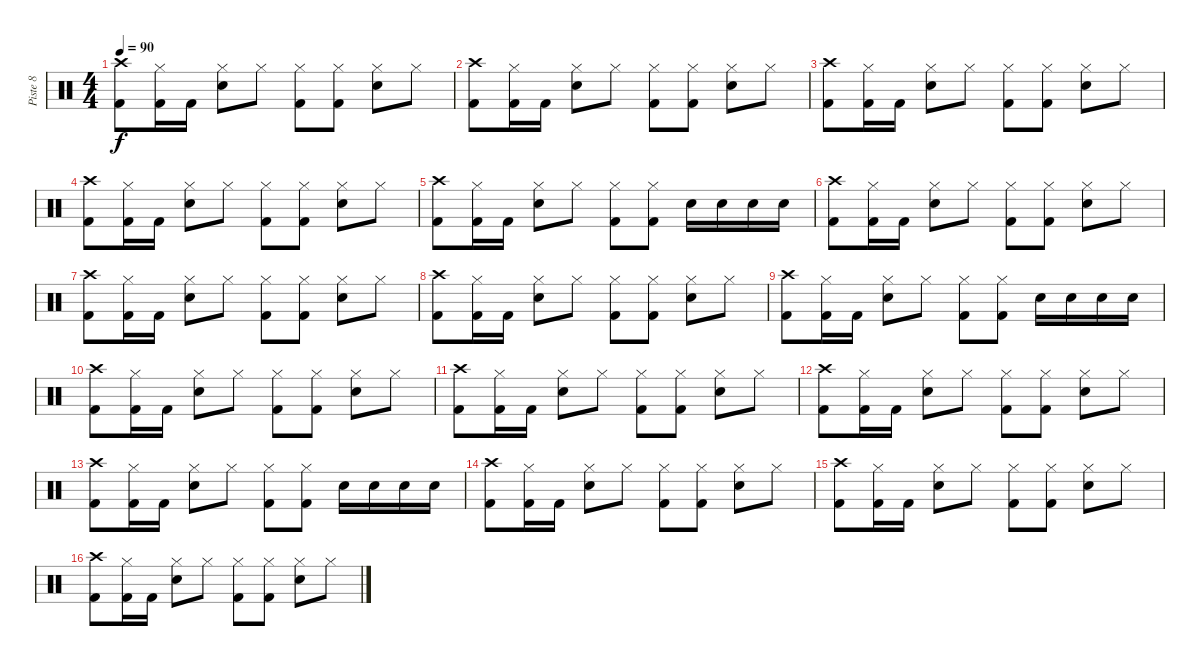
\track ("Piste 8" "Piste 8") {instrument percussion}
\staff {score}
\articulation defaults
\ts (4 4)
\tempo 90
\clef neutral
\ks c
("Crash high (hit)" "Kick (hit) 2").8{dy f} ("Hi-Hat (closed)" "Kick (hit) 2").16 "Kick (hit) 2".16 ("Hi-Hat (closed)" "Snare (hit) 2").8 "Hi-Hat (closed)".8 ("Hi-Hat (closed)" "Kick (hit) 2").8 ("Hi-Hat (closed)" "Kick (hit) 2").8 ("Hi-Hat (closed)" "Snare (hit) 2").8 "Hi-Hat (closed)".8 |
("Crash high (hit)" "Kick (hit) 2").8 ("Hi-Hat (closed)" "Kick (hit) 2").16 "Kick (hit) 2".16 ("Hi-Hat (closed)" "Snare (hit) 2").8 "Hi-Hat (closed)".8 ("Hi-Hat (closed)" "Kick (hit) 2").8 ("Hi-Hat (closed)" "Kick (hit) 2").8 ("Hi-Hat (closed)" "Snare (hit) 2").8 "Hi-Hat (closed)".8 |
("Crash high (hit)" "Kick (hit) 2").8 ("Hi-Hat (closed)" "Kick (hit) 2").16 "Kick (hit) 2".16 ("Hi-Hat (closed)" "Snare (hit) 2").8 "Hi-Hat (closed)".8 ("Hi-Hat (closed)" "Kick (hit) 2").8 ("Hi-Hat (closed)" "Kick (hit) 2").8 ("Hi-Hat (closed)" "Snare (hit) 2").8 "Hi-Hat (closed)".8 |
("Crash high (hit)" "Kick (hit) 2").8 ("Hi-Hat (closed)" "Kick (hit) 2").16 "Kick (hit) 2".16 ("Hi-Hat (closed)" "Snare (hit) 2").8 "Hi-Hat (closed)".8 ("Hi-Hat (closed)" "Kick (hit) 2").8 ("Hi-Hat (closed)" "Kick (hit) 2").8 ("Hi-Hat (closed)" "Snare (hit) 2").8 "Hi-Hat (closed)".8 |
("Crash high (hit)" "Kick (hit) 2").8 ("Hi-Hat (closed)" "Kick (hit) 2").16 "Kick (hit) 2".16 ("Hi-Hat (closed)" "Snare (hit) 2").8 "Hi-Hat (closed)".8 ("Hi-Hat (closed)" "Kick (hit) 2").8 ("Hi-Hat (closed)" "Kick (hit) 2").8 "Snare (hit) 2".16 "Snare (hit) 2".16 "Snare (hit) 2".16 "Snare (hit) 2".16 |
("Crash high (hit)" "Kick (hit) 2").8 ("Hi-Hat (closed)" "Kick (hit) 2").16 "Kick (hit) 2".16 ("Hi-Hat (closed)" "Snare (hit) 2").8 "Hi-Hat (closed)".8 ("Hi-Hat (closed)" "Kick (hit) 2").8 ("Hi-Hat (closed)" "Kick (hit) 2").8 ("Hi-Hat (closed)" "Snare (hit) 2").8 "Hi-Hat (closed)".8 |
("Crash high (hit)" "Kick (hit) 2").8 ("Hi-Hat (closed)" "Kick (hit) 2").16 "Kick (hit) 2".16 ("Hi-Hat (closed)" "Snare (hit) 2").8 "Hi-Hat (closed)".8 ("Hi-Hat (closed)" "Kick (hit) 2").8 ("Hi-Hat (closed)" "Kick (hit) 2").8 ("Hi-Hat (closed)" "Snare (hit) 2").8 "Hi-Hat (closed)".8 |
("Crash high (hit)" "Kick (hit) 2").8 ("Hi-Hat (closed)" "Kick (hit) 2").16 "Kick (hit) 2".16 ("Hi-Hat (closed)" "Snare (hit) 2").8 "Hi-Hat (closed)".8 ("Hi-Hat (closed)" "Kick (hit) 2").8 ("Hi-Hat (closed)" "Kick (hit) 2").8 ("Hi-Hat (closed)" "Snare (hit) 2").8 "Hi-Hat (closed)".8 |
("Crash high (hit)" "Kick (hit) 2").8 ("Hi-Hat (closed)" "Kick (hit) 2").16 "Kick (hit) 2".16 ("Hi-Hat (closed)" "Snare (hit) 2").8 "Hi-Hat (closed)".8 ("Hi-Hat (closed)" "Kick (hit) 2").8 ("Hi-Hat (closed)" "Kick (hit) 2").8 "Snare (hit) 2".16 "Snare (hit) 2".16 "Snare (hit) 2".16 "Snare (hit) 2".16 |
("Crash high (hit)" "Kick (hit) 2").8 ("Hi-Hat (closed)" "Kick (hit) 2").16 "Kick (hit) 2".16 ("Hi-Hat (closed)" "Snare (hit) 2").8 "Hi-Hat (closed)".8 ("Hi-Hat (closed)" "Kick (hit) 2").8 ("Hi-Hat (closed)" "Kick (hit) 2").8 ("Hi-Hat (closed)" "Snare (hit) 2").8 "Hi-Hat (closed)".8 |
("Crash high (hit)" "Kick (hit) 2").8 ("Hi-Hat (closed)" "Kick (hit) 2").16 "Kick (hit) 2".16 ("Hi-Hat (closed)" "Snare (hit) 2").8 "Hi-Hat (closed)".8 ("Hi-Hat (closed)" "Kick (hit) 2").8 ("Hi-Hat (closed)" "Kick (hit) 2").8 ("Hi-Hat (closed)" "Snare (hit) 2").8 "Hi-Hat (closed)".8 |
("Crash high (hit)" "Kick (hit) 2").8 ("Hi-Hat (closed)" "Kick (hit) 2").16 "Kick (hit) 2".16 ("Hi-Hat (closed)" "Snare (hit) 2").8 "Hi-Hat (closed)".8 ("Hi-Hat (closed)" "Kick (hit) 2").8 ("Hi-Hat (closed)" "Kick (hit) 2").8 ("Hi-Hat (closed)" "Snare (hit) 2").8 "Hi-Hat (closed)".8 |
("Crash high (hit)" "Kick (hit) 2").8 ("Hi-Hat (closed)" "Kick (hit) 2").16 "Kick (hit) 2".16 ("Hi-Hat (closed)" "Snare (hit) 2").8 "Hi-Hat (closed)".8 ("Hi-Hat (closed)" "Kick (hit) 2").8 ("Hi-Hat (closed)" "Kick (hit) 2").8 "Snare (hit) 2".16 "Snare (hit) 2".16 "Snare (hit) 2".16 "Snare (hit) 2".16 |
("Crash high (hit)" "Kick (hit) 2").8 ("Hi-Hat (closed)" "Kick (hit) 2").16 "Kick (hit) 2".16 ("Hi-Hat (closed)" "Snare (hit) 2").8 "Hi-Hat (closed)".8 ("Hi-Hat (closed)" "Kick (hit) 2").8 ("Hi-Hat (closed)" "Kick (hit) 2").8 ("Hi-Hat (closed)" "Snare (hit) 2").8 "Hi-Hat (closed)".8 |
("Crash high (hit)" "Kick (hit) 2").8 ("Hi-Hat (closed)" "Kick (hit) 2").16 "Kick (hit) 2".16 ("Hi-Hat (closed)" "Snare (hit) 2").8 "Hi-Hat (closed)".8 ("Hi-Hat (closed)" "Kick (hit) 2").8 ("Hi-Hat (closed)" "Kick (hit) 2").8 ("Hi-Hat (closed)" "Snare (hit) 2").8 "Hi-Hat (closed)".8 |
("Crash high (hit)" "Kick (hit) 2").8 ("Hi-Hat (closed)" "Kick (hit) 2").16 "Kick (hit) 2".16 ("Hi-Hat (closed)" "Snare (hit) 2").8 "Hi-Hat (closed)".8 ("Hi-Hat (closed)" "Kick (hit) 2").8 ("Hi-Hat (closed)" "Kick (hit) 2").8 ("Hi-Hat (closed)" "Snare (hit) 2").8 "Hi-Hat (closed)".8
